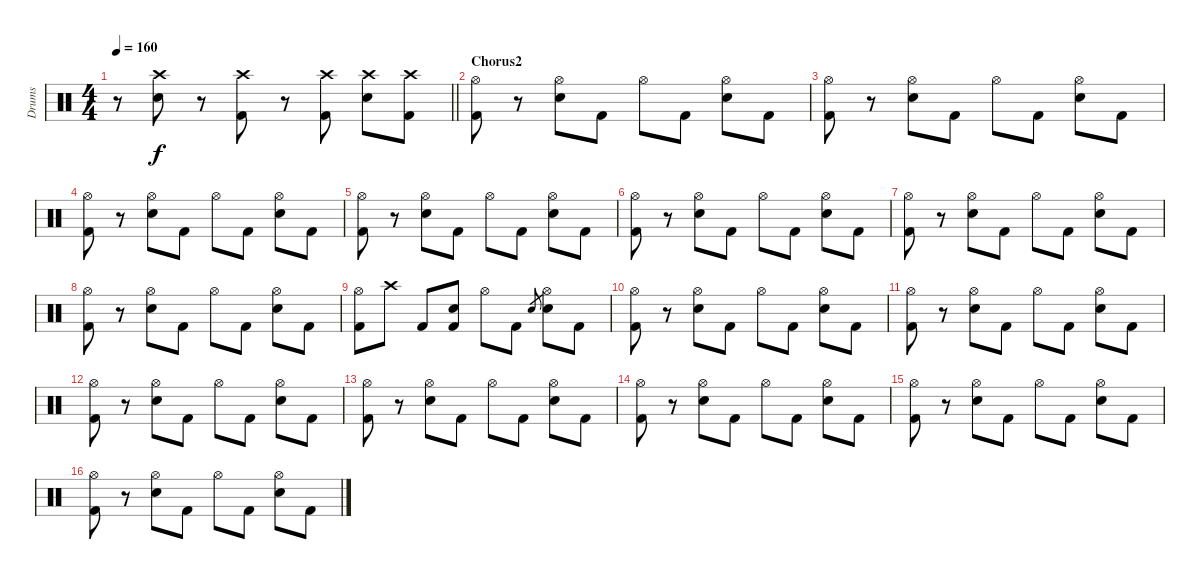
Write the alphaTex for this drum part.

\track ("Drums" "Drums") {instrument percussion}
\staff {score}
\articulation defaults
\ts (4 4)
\tempo 160
\clef neutral
\barLineRight lightlight
\ks c
r.8{dy f} ("Crash high (hit)" "Electric Snare (hit)").8 r.8 ("Crash high (hit)" "Kick (hit) 2").8 r.8 ("Crash high (hit)" "Kick (hit) 2").8 ("Crash high (hit)" "Electric Snare (hit)").8 ("Crash high (hit)" "Kick (hit) 2").8 |
\section ("" "Chorus2")
("Hi-Hat (open)" "Kick (hit) 2").8 r.8 ("Hi-Hat (open)" "Electric Snare (hit)").8 "Kick (hit) 2".8 "Hi-Hat (open)".8 "Kick (hit) 2".8 ("Hi-Hat (open)" "Electric Snare (hit)").8 "Kick (hit) 2".8 |
("Hi-Hat (open)" "Kick (hit) 2").8 r.8 ("Hi-Hat (open)" "Electric Snare (hit)").8 "Kick (hit) 2".8 "Hi-Hat (open)".8 "Kick (hit) 2".8 ("Hi-Hat (open)" "Electric Snare (hit)").8 "Kick (hit) 2".8 |
("Hi-Hat (open)" "Kick (hit) 2").8 r.8 ("Hi-Hat (open)" "Electric Snare (hit)").8 "Kick (hit) 2".8 "Hi-Hat (open)".8 "Kick (hit) 2".8 ("Hi-Hat (open)" "Electric Snare (hit)").8 "Kick (hit) 2".8 |
("Hi-Hat (open)" "Kick (hit) 2").8 r.8 ("Hi-Hat (open)" "Electric Snare (hit)").8 "Kick (hit) 2".8 "Hi-Hat (open)".8 "Kick (hit) 2".8 ("Hi-Hat (open)" "Electric Snare (hit)").8 "Kick (hit) 2".8 |
("Hi-Hat (open)" "Kick (hit) 2").8 r.8 ("Hi-Hat (open)" "Electric Snare (hit)").8 "Kick (hit) 2".8 "Hi-Hat (open)".8 "Kick (hit) 2".8 ("Hi-Hat (open)" "Electric Snare (hit)").8 "Kick (hit) 2".8 |
("Hi-Hat (open)" "Kick (hit) 2").8 r.8 ("Hi-Hat (open)" "Electric Snare (hit)").8 "Kick (hit) 2".8 "Hi-Hat (open)".8 "Kick (hit) 2".8 ("Hi-Hat (open)" "Electric Snare (hit)").8 "Kick (hit) 2".8 |
("Hi-Hat (open)" "Kick (hit) 2").8 r.8 ("Hi-Hat (open)" "Electric Snare (hit)").8 "Kick (hit) 2".8 "Hi-Hat (open)".8 "Kick (hit) 2".8 ("Hi-Hat (open)" "Electric Snare (hit)").8 "Kick (hit) 2".8 |
("Hi-Hat (open)" "Kick (hit) 2").8 "Crash high (hit)".8 "Kick (hit) 2".8 ("Electric Snare (hit)" "Kick (hit) 2").8 "Hi-Hat (open)".8 "Kick (hit) 2".8 "Electric Snare (hit)".8{gr} ("Hi-Hat (open)" "Electric Snare (hit)").8 "Kick (hit) 2".8 |
("Hi-Hat (open)" "Kick (hit) 2").8 r.8 ("Hi-Hat (open)" "Electric Snare (hit)").8 "Kick (hit) 2".8 "Hi-Hat (open)".8 "Kick (hit) 2".8 ("Hi-Hat (open)" "Electric Snare (hit)").8 "Kick (hit) 2".8 |
("Hi-Hat (open)" "Kick (hit) 2").8 r.8 ("Hi-Hat (open)" "Electric Snare (hit)").8 "Kick (hit) 2".8 "Hi-Hat (open)".8 "Kick (hit) 2".8 ("Hi-Hat (open)" "Electric Snare (hit)").8 "Kick (hit) 2".8 |
("Hi-Hat (open)" "Kick (hit) 2").8 r.8 ("Hi-Hat (open)" "Electric Snare (hit)").8 "Kick (hit) 2".8 "Hi-Hat (open)".8 "Kick (hit) 2".8 ("Hi-Hat (open)" "Electric Snare (hit)").8 "Kick (hit) 2".8 |
("Hi-Hat (open)" "Kick (hit) 2").8 r.8 ("Hi-Hat (open)" "Electric Snare (hit)").8 "Kick (hit) 2".8 "Hi-Hat (open)".8 "Kick (hit) 2".8 ("Hi-Hat (open)" "Electric Snare (hit)").8 "Kick (hit) 2".8 |
("Hi-Hat (open)" "Kick (hit) 2").8 r.8 ("Hi-Hat (open)" "Electric Snare (hit)").8 "Kick (hit) 2".8 "Hi-Hat (open)".8 "Kick (hit) 2".8 ("Hi-Hat (open)" "Electric Snare (hit)").8 "Kick (hit) 2".8 |
("Hi-Hat (open)" "Kick (hit) 2").8 r.8 ("Hi-Hat (open)" "Electric Snare (hit)").8 "Kick (hit) 2".8 "Hi-Hat (open)".8 "Kick (hit) 2".8 ("Hi-Hat (open)" "Electric Snare (hit)").8 "Kick (hit) 2".8 |
("Hi-Hat (open)" "Kick (hit) 2").8 r.8 ("Hi-Hat (open)" "Electric Snare (hit)").8 "Kick (hit) 2".8 "Hi-Hat (open)".8 "Kick (hit) 2".8 ("Hi-Hat (open)" "Electric Snare (hit)").8 "Kick (hit) 2".8
